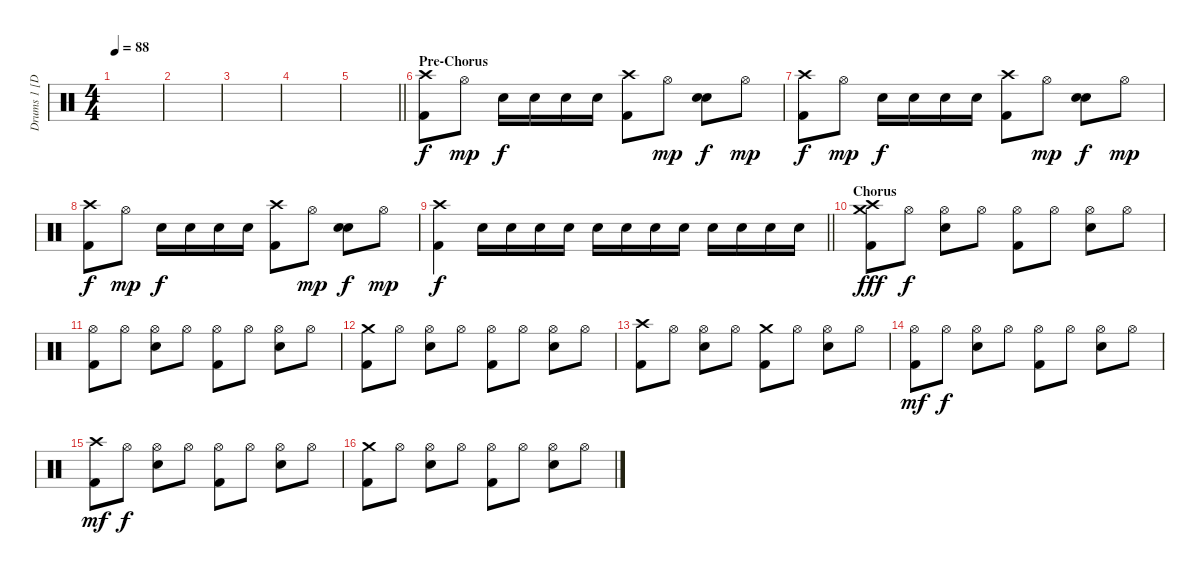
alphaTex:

\track ("Drums 1 [Doom]" "Drums 1 [D") {instrument percussion}
\staff {score}
\articulation defaults
\ts (4 4)
\tempo 88
\clef neutral
\ks c
|
|
|
|
\barLineRight lightlight
|
\section ("" "Pre-Chorus")
("Crash high (hit)" "Kick (hit) 2").8{dy f} "Hi-Hat (open)".8{dy mp} "Electric Snare (hit)".16{dy f} "Electric Snare (hit)".16 "Electric Snare (hit)".16 "Electric Snare (hit)".16 ("Crash high (hit)" "Kick (hit) 2").8 "Hi-Hat (open)".8{dy mp} ("Electric Snare (hit)" "Snare (hit) 2").8{dy f} "Hi-Hat (open)".8{dy mp} |
("Crash high (hit)" "Kick (hit) 2").8{dy f} "Hi-Hat (open)".8{dy mp} "Electric Snare (hit)".16{dy f} "Electric Snare (hit)".16 "Electric Snare (hit)".16 "Electric Snare (hit)".16 ("Crash high (hit)" "Kick (hit) 2").8 "Hi-Hat (open)".8{dy mp} ("Electric Snare (hit)" "Snare (hit) 2").8{dy f} "Hi-Hat (open)".8{dy mp} |
("Crash high (hit)" "Kick (hit) 2").8{dy f} "Hi-Hat (open)".8{dy mp} "Electric Snare (hit)".16{dy f} "Electric Snare (hit)".16 "Electric Snare (hit)".16 "Electric Snare (hit)".16 ("Crash high (hit)" "Kick (hit) 2").8 "Hi-Hat (open)".8{dy mp} ("Electric Snare (hit)" "Snare (hit) 2").8{dy f} "Hi-Hat (open)".8{dy mp} |
\barLineRight lightlight
("Crash high (hit)" "Kick (hit) 2").4{dy f} "Electric Snare (hit)".16 "Electric Snare (hit)".16 "Electric Snare (hit)".16 "Electric Snare (hit)".16 "Electric Snare (hit)".16 "Electric Snare (hit)".16 "Electric Snare (hit)".16 "Electric Snare (hit)".16 "Electric Snare (hit)".16 "Electric Snare (hit)".16 "Electric Snare (hit)".16 "Electric Snare (hit)".16 |
\section ("" "Chorus")
("Crash medium (hit)" "Crash high (hit)" "Kick (hit) 2").8{dy fff} "Hi-Hat (open)".8{dy f} ("Hi-Hat (open)" "Electric Snare (hit)").8 "Hi-Hat (open)".8 ("Hi-Hat (open)" "Kick (hit) 2").8 "Hi-Hat (open)".8 ("Hi-Hat (open)" "Electric Snare (hit)").8 "Hi-Hat (open)".8 |
("Hi-Hat (open)" "Kick (hit) 2").8 "Hi-Hat (open)".8 ("Hi-Hat (open)" "Electric Snare (hit)").8 "Hi-Hat (open)".8 ("Hi-Hat (open)" "Kick (hit) 2").8 "Hi-Hat (open)".8 ("Hi-Hat (open)" "Electric Snare (hit)").8 "Hi-Hat (open)".8 |
("Crash medium (hit)" "Kick (hit) 2").8 "Hi-Hat (open)".8 ("Hi-Hat (open)" "Electric Snare (hit)").8 "Hi-Hat (open)".8 ("Hi-Hat (open)" "Kick (hit) 2").8 "Hi-Hat (open)".8 ("Hi-Hat (open)" "Electric Snare (hit)").8 "Hi-Hat (open)".8 |
("Crash high (hit)" "Kick (hit) 2").8 "Hi-Hat (open)".8 ("Hi-Hat (open)" "Electric Snare (hit)").8 "Hi-Hat (open)".8 ("Crash medium (hit)" "Kick (hit) 2").8 "Hi-Hat (open)".8 ("Hi-Hat (open)" "Electric Snare (hit)").8 "Hi-Hat (open)".8 |
("Hi-Hat (open)" "Kick (hit) 2").8{dy mf} "Hi-Hat (open)".8{dy f} ("Hi-Hat (open)" "Electric Snare (hit)").8 "Hi-Hat (open)".8 ("Hi-Hat (open)" "Kick (hit) 2").8 "Hi-Hat (open)".8 ("Hi-Hat (open)" "Electric Snare (hit)").8 "Hi-Hat (open)".8 |
("Crash high (hit)" "Kick (hit) 2").8{dy mf} "Hi-Hat (open)".8{dy f} ("Hi-Hat (open)" "Electric Snare (hit)").8 "Hi-Hat (open)".8 ("Hi-Hat (open)" "Kick (hit) 2").8 "Hi-Hat (open)".8 ("Hi-Hat (open)" "Electric Snare (hit)").8 "Hi-Hat (open)".8 |
("Crash medium (hit)" "Kick (hit) 2").8 "Hi-Hat (open)".8 ("Hi-Hat (open)" "Electric Snare (hit)").8 "Hi-Hat (open)".8 ("Hi-Hat (open)" "Kick (hit) 2").8 "Hi-Hat (open)".8 ("Hi-Hat (open)" "Electric Snare (hit)").8 "Hi-Hat (open)".8
